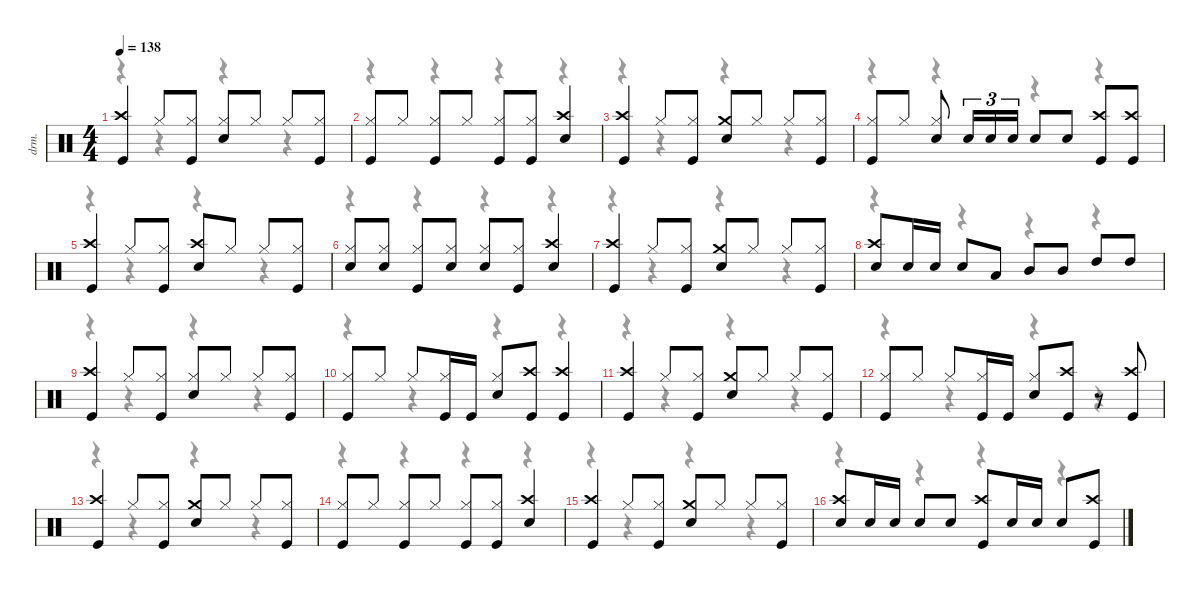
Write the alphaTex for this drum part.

\defaultSystemsLayout 4
\hideDynamics
\bracketExtendMode nobrackets
\track ("Drumkit" "drm.") {instrument percussion}
\staff {score}
\articulation defaults
\voice
\ts (4 4)
\tempo 138
\clef neutral
\ks c
("Kick (hit)" "Crash high (hit)").4{dy f} "Hi-Hat (closed)".8 ("Hi-Hat (closed)" "Kick (hit)").8 ("Snare (hit) 2" "Hi-Hat (closed)").8 "Hi-Hat (closed)".8 "Hi-Hat (closed)".8 ("Hi-Hat (closed)" "Kick (hit)").8 |
("Kick (hit)" "Hi-Hat (closed)").8 "Hi-Hat (closed)".8 ("Kick (hit)" "Hi-Hat (closed)").8 "Hi-Hat (closed)".8 ("Kick (hit)" "Hi-Hat (closed)").8 ("Kick (hit)" "Hi-Hat (closed)").8 ("Crash high (hit)" "Snare (hit) 2").4 |
("Kick (hit)" "Crash high (hit)").4 "Hi-Hat (closed)".8 ("Hi-Hat (closed)" "Kick (hit)").8 ("Snare (hit) 2" "Crash medium (hit)").8 "Hi-Hat (closed)".8 "Hi-Hat (closed)".8 ("Hi-Hat (closed)" "Kick (hit)").8 |
("Hi-Hat (closed)" "Kick (hit)").8 "Hi-Hat (closed)".8 ("Snare (hit) 2" "Hi-Hat (closed)").8 "Snare (hit) 2".16{tu (3 2)} "Snare (hit) 2".16{tu (3 2)} "Snare (hit) 2".16{tu (3 2)} "Snare (hit) 2".8 "Snare (hit) 2".8 ("Crash high (hit)" "Kick (hit)").8 ("Crash high (hit)" "Kick (hit)").8 |
("Kick (hit)" "Crash high (hit)").4 "Hi-Hat (closed)".8 ("Hi-Hat (closed)" "Kick (hit)").8 ("Snare (hit) 2" "Crash high (hit)").8 "Hi-Hat (closed)".8 "Hi-Hat (closed)".8 ("Hi-Hat (closed)" "Kick (hit)").8 |
("Snare (hit) 2" "Hi-Hat (closed)").8 ("Snare (hit) 2" "Hi-Hat (closed)").8 ("Kick (hit)" "Hi-Hat (closed)").8 ("Snare (hit) 2" "Hi-Hat (closed)").8 ("Snare (hit) 2" "Hi-Hat (closed)").8 ("Kick (hit)" "Hi-Hat (closed)").8 ("Crash high (hit)" "Snare (hit) 2").4 |
("Kick (hit)" "Crash high (hit)").4 "Hi-Hat (closed)".8 ("Hi-Hat (closed)" "Kick (hit)").8 ("Snare (hit) 2" "Crash medium (hit)").8 "Hi-Hat (closed)".8 "Hi-Hat (closed)".8 ("Hi-Hat (closed)" "Kick (hit)").8 |
("Snare (hit) 2" "Crash high (hit)").8 "Snare (hit) 2".16 "Snare (hit) 2".16 "Snare (hit) 2".8 "Low Tom (hit)".8 "Mid Tom (hit)".8 "Mid Tom (hit)".8 "High Tom (hit)".8 "High Tom (hit)".8 |
("Kick (hit)" "Crash high (hit)").4 "Hi-Hat (closed)".8 ("Hi-Hat (closed)" "Kick (hit)").8 ("Snare (hit) 2" "Hi-Hat (closed)").8 "Hi-Hat (closed)".8 "Hi-Hat (closed)".8 ("Hi-Hat (closed)" "Kick (hit)").8 |
("Hi-Hat (closed)" "Kick (hit)").8 "Hi-Hat (closed)".8 "Hi-Hat (closed)".8 ("Hi-Hat (closed)" "Kick (hit)").16 "Kick (hit)".16 ("Snare (hit) 2" "Hi-Hat (closed)").8 ("Crash high (hit)" "Kick (hit)").8 ("Crash high (hit)" "Kick (hit)").4 |
("Kick (hit)" "Crash high (hit)").4 "Hi-Hat (closed)".8 ("Hi-Hat (closed)" "Kick (hit)").8 ("Snare (hit) 2" "Crash medium (hit)").8 "Hi-Hat (closed)".8 "Hi-Hat (closed)".8 ("Hi-Hat (closed)" "Kick (hit)").8 |
("Hi-Hat (closed)" "Kick (hit)").8 "Hi-Hat (closed)".8 "Hi-Hat (closed)".8 ("Hi-Hat (closed)" "Kick (hit)").16 "Kick (hit)".16 ("Snare (hit) 2" "Hi-Hat (closed)").8 ("Crash high (hit)" "Kick (hit)").8 r.8 ("Crash high (hit)" "Kick (hit)").8 |
("Kick (hit)" "Crash high (hit)").4 "Hi-Hat (closed)".8 ("Hi-Hat (closed)" "Kick (hit)").8 ("Snare (hit) 2" "Crash medium (hit)").8 "Hi-Hat (closed)".8 "Hi-Hat (closed)".8 ("Hi-Hat (closed)" "Kick (hit)").8 |
("Kick (hit)" "Hi-Hat (closed)").8 "Hi-Hat (closed)".8 ("Kick (hit)" "Hi-Hat (closed)").8 "Hi-Hat (closed)".8 ("Kick (hit)" "Hi-Hat (closed)").8 ("Kick (hit)" "Hi-Hat (closed)").8 ("Crash high (hit)" "Snare (hit) 2").4 |
("Kick (hit)" "Crash high (hit)").4 "Hi-Hat (closed)".8 ("Hi-Hat (closed)" "Kick (hit)").8 ("Snare (hit) 2" "Crash medium (hit)").8 "Hi-Hat (closed)".8 "Hi-Hat (closed)".8 ("Hi-Hat (closed)" "Kick (hit)").8 |
("Snare (hit) 2" "Crash high (hit)").8 "Snare (hit) 2".16 "Snare (hit) 2".16 "Snare (hit) 2".8 "Snare (hit) 2".8 ("Crash high (hit)" "Kick (hit)").8 "Snare (hit) 2".16 "Snare (hit) 2".16 "Snare (hit) 2".8 ("Crash high (hit)" "Kick (hit)").8
\voice
\clef neutral
\ottava regular
\simile none
\ks c
r.4{dy mf} r.4 r.4 r.4 |
r.4 r.4 r.4 r.4 |
r.4 r.4 r.4 r.4 |
r.4 r.4 r.4 r.4 |
r.4 r.4 r.4 r.4 |
r.4 r.4 r.4 r.4 |
r.4 r.4 r.4 r.4 |
r.4 r.4 r.4 r.4 |
r.4 r.4 r.4 r.4 |
r.4 r.4 r.4 r.4 |
r.4 r.4 r.4 r.4 |
r.4 r.4 r.4 r.4 |
r.4 r.4 r.4 r.4 |
r.4 r.4 r.4 r.4 |
r.4 r.4 r.4 r.4 |
r.4 r.4 r.4 r.4
